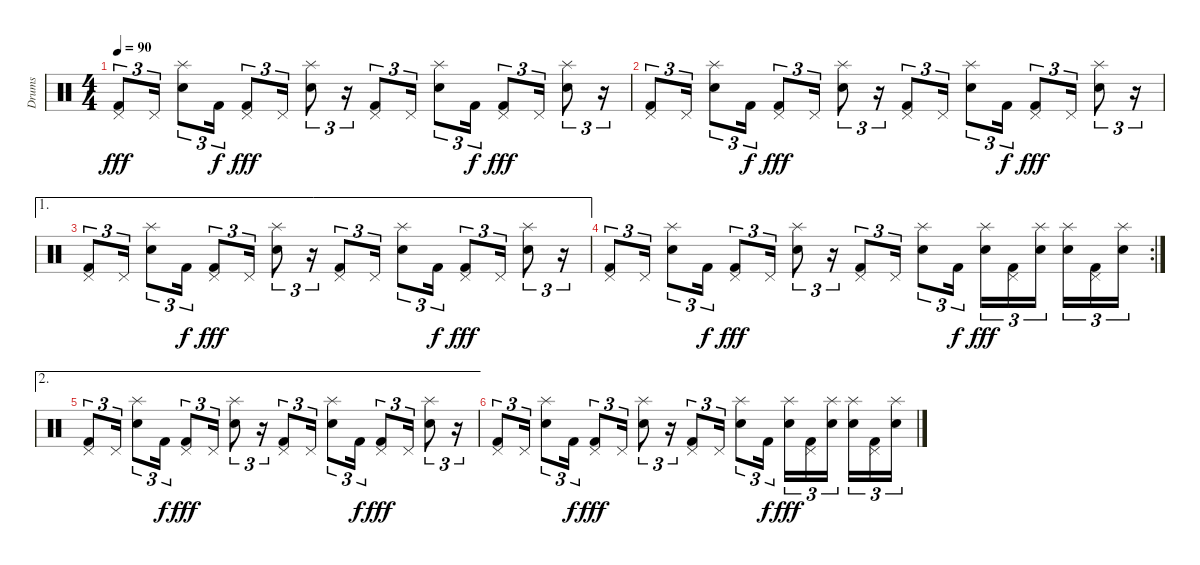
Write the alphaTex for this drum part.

\track ("Drums" "Drums") {instrument percussion}
\staff {score}
\articulation defaults
\ts (4 4)
\tempo 90
\clef neutral
\ks c
("Pedal Hi-Hat (hit)" "Kick (hit) 2").8{tu (3 2) dy fff} "Pedal Hi-Hat (hit)".16{tu (3 2)} ("Splash (hit)" "Snare (hit) 2").8{tu (3 2)} "Kick (hit) 2".16{tu (3 2) dy f} ("Pedal Hi-Hat (hit)" "Kick (hit) 2").8{tu (3 2) dy fff} "Pedal Hi-Hat (hit)".16{tu (3 2)} ("Splash (hit)" "Snare (hit) 2").8{tu (3 2)} r.16{tu (3 2)} ("Pedal Hi-Hat (hit)" "Kick (hit) 2").8{tu (3 2)} "Pedal Hi-Hat (hit)".16{tu (3 2)} ("Splash (hit)" "Snare (hit) 2").8{tu (3 2)} "Kick (hit) 2".16{tu (3 2) dy f} ("Pedal Hi-Hat (hit)" "Kick (hit) 2").8{tu (3 2) dy fff} "Pedal Hi-Hat (hit)".16{tu (3 2)} ("Splash (hit)" "Snare (hit) 2").8{tu (3 2)} r.16{tu (3 2)} |
("Pedal Hi-Hat (hit)" "Kick (hit) 2").8{tu (3 2)} "Pedal Hi-Hat (hit)".16{tu (3 2)} ("Splash (hit)" "Snare (hit) 2").8{tu (3 2)} "Kick (hit) 2".16{tu (3 2) dy f} ("Pedal Hi-Hat (hit)" "Kick (hit) 2").8{tu (3 2) dy fff} "Pedal Hi-Hat (hit)".16{tu (3 2)} ("Splash (hit)" "Snare (hit) 2").8{tu (3 2)} r.16{tu (3 2)} ("Pedal Hi-Hat (hit)" "Kick (hit) 2").8{tu (3 2)} "Pedal Hi-Hat (hit)".16{tu (3 2)} ("Splash (hit)" "Snare (hit) 2").8{tu (3 2)} "Kick (hit) 2".16{tu (3 2) dy f} ("Pedal Hi-Hat (hit)" "Kick (hit) 2").8{tu (3 2) dy fff} "Pedal Hi-Hat (hit)".16{tu (3 2)} ("Splash (hit)" "Snare (hit) 2").8{tu (3 2)} r.16{tu (3 2)} |
\ae 1
("Pedal Hi-Hat (hit)" "Kick (hit) 2").8{tu (3 2)} "Pedal Hi-Hat (hit)".16{tu (3 2)} ("Splash (hit)" "Snare (hit) 2").8{tu (3 2)} "Kick (hit) 2".16{tu (3 2) dy f} ("Pedal Hi-Hat (hit)" "Kick (hit) 2").8{tu (3 2) dy fff} "Pedal Hi-Hat (hit)".16{tu (3 2)} ("Splash (hit)" "Snare (hit) 2").8{tu (3 2)} r.16{tu (3 2)} ("Pedal Hi-Hat (hit)" "Kick (hit) 2").8{tu (3 2)} "Pedal Hi-Hat (hit)".16{tu (3 2)} ("Splash (hit)" "Snare (hit) 2").8{tu (3 2)} "Kick (hit) 2".16{tu (3 2) dy f} ("Pedal Hi-Hat (hit)" "Kick (hit) 2").8{tu (3 2) dy fff} "Pedal Hi-Hat (hit)".16{tu (3 2)} ("Splash (hit)" "Snare (hit) 2").8{tu (3 2)} r.16{tu (3 2)} |
\rc 2
("Pedal Hi-Hat (hit)" "Kick (hit) 2").8{tu (3 2)} "Pedal Hi-Hat (hit)".16{tu (3 2)} ("Splash (hit)" "Snare (hit) 2").8{tu (3 2)} "Kick (hit) 2".16{tu (3 2) dy f} ("Pedal Hi-Hat (hit)" "Kick (hit) 2").8{tu (3 2) dy fff} "Pedal Hi-Hat (hit)".16{tu (3 2)} ("Splash (hit)" "Snare (hit) 2").8{tu (3 2)} r.16{tu (3 2)} ("Pedal Hi-Hat (hit)" "Kick (hit) 2").8{tu (3 2)} "Pedal Hi-Hat (hit)".16{tu (3 2)} ("Splash (hit)" "Snare (hit) 2").8{tu (3 2)} "Kick (hit) 2".16{tu (3 2) dy f} ("Splash (hit)" "Snare (hit) 2").16{tu (3 2) dy fff} ("Pedal Hi-Hat (hit)" "Kick (hit) 2").16{tu (3 2)} ("Splash (hit)" "Snare (hit) 2").16{tu (3 2)} ("Splash (hit)" "Snare (hit) 2").16{tu (3 2)} ("Pedal Hi-Hat (hit)" "Kick (hit) 2").16{tu (3 2)} ("Splash (hit)" "Snare (hit) 2").16{tu (3 2)} |
\ae 2
("Pedal Hi-Hat (hit)" "Kick (hit) 2").8{tu (3 2) volume 0} "Pedal Hi-Hat (hit)".16{tu (3 2)} ("Splash (hit)" "Snare (hit) 2").8{tu (3 2)} "Kick (hit) 2".16{tu (3 2) dy f} ("Pedal Hi-Hat (hit)" "Kick (hit) 2").8{tu (3 2) dy fff} "Pedal Hi-Hat (hit)".16{tu (3 2)} ("Splash (hit)" "Snare (hit) 2").8{tu (3 2)} r.16{tu (3 2)} ("Pedal Hi-Hat (hit)" "Kick (hit) 2").8{tu (3 2)} "Pedal Hi-Hat (hit)".16{tu (3 2)} ("Splash (hit)" "Snare (hit) 2").8{tu (3 2)} "Kick (hit) 2".16{tu (3 2) dy f} ("Pedal Hi-Hat (hit)" "Kick (hit) 2").8{tu (3 2) dy fff} "Pedal Hi-Hat (hit)".16{tu (3 2)} ("Splash (hit)" "Snare (hit) 2").8{tu (3 2)} r.16{tu (3 2)} |
("Pedal Hi-Hat (hit)" "Kick (hit) 2").8{tu (3 2)} "Pedal Hi-Hat (hit)".16{tu (3 2)} ("Splash (hit)" "Snare (hit) 2").8{tu (3 2)} "Kick (hit) 2".16{tu (3 2) dy f} ("Pedal Hi-Hat (hit)" "Kick (hit) 2").8{tu (3 2) dy fff} "Pedal Hi-Hat (hit)".16{tu (3 2)} ("Splash (hit)" "Snare (hit) 2").8{tu (3 2)} r.16{tu (3 2)} ("Pedal Hi-Hat (hit)" "Kick (hit) 2").8{tu (3 2)} "Pedal Hi-Hat (hit)".16{tu (3 2)} ("Splash (hit)" "Snare (hit) 2").8{tu (3 2)} "Kick (hit) 2".16{tu (3 2) dy f} ("Splash (hit)" "Snare (hit) 2").16{tu (3 2) dy fff} ("Pedal Hi-Hat (hit)" "Kick (hit) 2").16{tu (3 2)} ("Splash (hit)" "Snare (hit) 2").16{tu (3 2)} ("Splash (hit)" "Snare (hit) 2").16{tu (3 2)} ("Pedal Hi-Hat (hit)" "Kick (hit) 2").16{tu (3 2)} ("Splash (hit)" "Snare (hit) 2").16{tu (3 2)}
